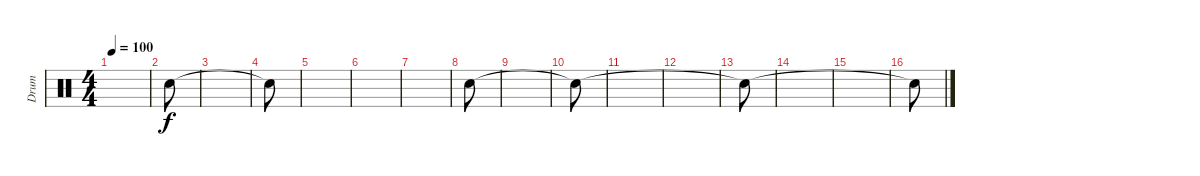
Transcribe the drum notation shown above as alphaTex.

\track ("Drum" "Drum") {instrument percussion}
\staff {score}
\articulation defaults
\ts (4 4)
\tempo 100
\clef neutral
\ks c
|
"Snare (hit)"{t}.8 |
|
"Snare (hit)"{t}.8 |
|
|
|
"Snare (hit)".8 |
|
"Snare (hit)"{t}.8 |
|
|
"Snare (hit)"{t}.8 |
|
|
"Snare (hit)"{t}.8
